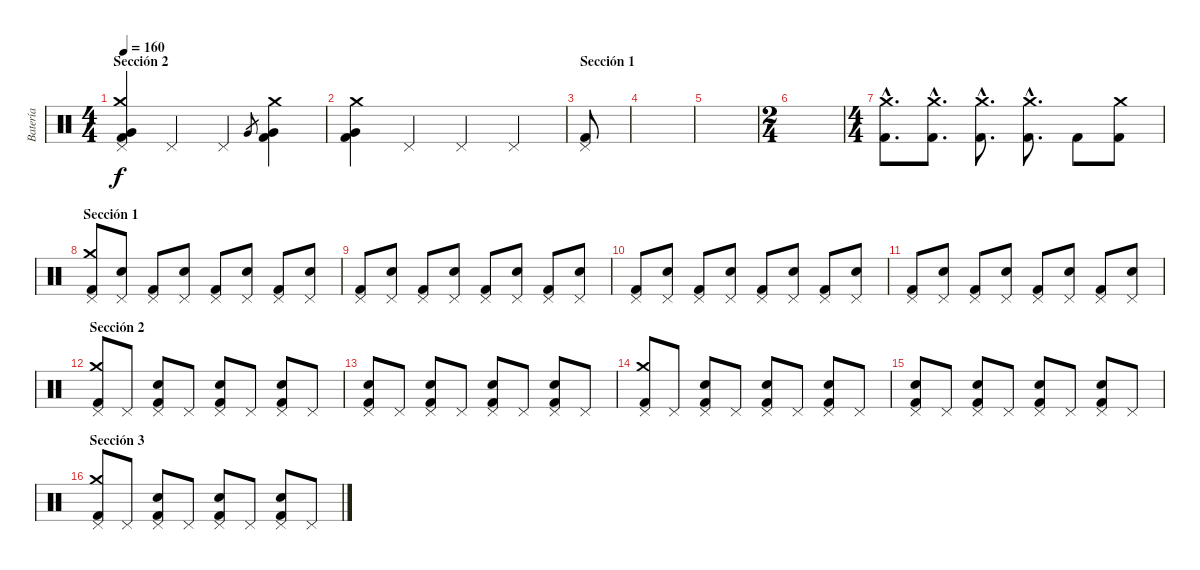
\track ("Batería" "Batería") {instrument percussion}
\staff {score}
\articulation defaults
\ts (4 4)
\section ("" "Sección 2")
\tempo 160
\clef neutral
\ks c
("Pedal Hi-Hat (hit)" "Crash medium (hit)" "Very Low Tom (hit)" "Kick (hit) 2").4{dy f} "Pedal Hi-Hat (hit)".4 "Pedal Hi-Hat (hit)".4 "Very Low Tom (hit)".8{gr} ("Crash medium (hit)" "Very Low Tom (hit)" "Kick (hit) 2").4 |
("Crash medium (hit)" "Very Low Tom (hit)" "Kick (hit) 2").4 "Pedal Hi-Hat (hit)".4 "Pedal Hi-Hat (hit)".4 "Pedal Hi-Hat (hit)".4 |
\section ("" "Sección 1")
("Pedal Hi-Hat (hit)" "Kick (hit) 2").8 |
|
|
\ts (2 4)
|
\ts (4 4)
("Crash medium (hit)"{hac} "Kick (hit) 2"{hac}).8{d} ("Crash medium (hit)"{hac} "Kick (hit) 2"{hac}).8{d} ("Crash medium (hit)"{hac} "Kick (hit) 2"{hac}).8{d} ("Crash medium (hit)"{hac} "Kick (hit) 2"{hac}).8{d} "Kick (hit) 2".8 ("Crash medium (hit)" "Kick (hit) 2").8 |
\section ("" "Sección 1")
("Pedal Hi-Hat (hit)" "Crash medium (hit)" "Kick (hit) 2").8 ("Pedal Hi-Hat (hit)" "Electric Snare (hit)").8 ("Pedal Hi-Hat (hit)" "Kick (hit) 2").8 ("Pedal Hi-Hat (hit)" "Electric Snare (hit)").8 ("Pedal Hi-Hat (hit)" "Kick (hit) 2").8 ("Pedal Hi-Hat (hit)" "Electric Snare (hit)").8 ("Pedal Hi-Hat (hit)" "Kick (hit) 2").8 ("Pedal Hi-Hat (hit)" "Electric Snare (hit)").8 |
("Pedal Hi-Hat (hit)" "Kick (hit) 2").8 ("Pedal Hi-Hat (hit)" "Electric Snare (hit)").8 ("Pedal Hi-Hat (hit)" "Kick (hit) 2").8 ("Pedal Hi-Hat (hit)" "Electric Snare (hit)").8 ("Pedal Hi-Hat (hit)" "Kick (hit) 2").8 ("Pedal Hi-Hat (hit)" "Electric Snare (hit)").8 ("Pedal Hi-Hat (hit)" "Kick (hit) 2").8 ("Pedal Hi-Hat (hit)" "Electric Snare (hit)").8 |
("Pedal Hi-Hat (hit)" "Kick (hit) 2").8 ("Pedal Hi-Hat (hit)" "Electric Snare (hit)").8 ("Pedal Hi-Hat (hit)" "Kick (hit) 2").8 ("Pedal Hi-Hat (hit)" "Electric Snare (hit)").8 ("Pedal Hi-Hat (hit)" "Kick (hit) 2").8 ("Pedal Hi-Hat (hit)" "Electric Snare (hit)").8 ("Pedal Hi-Hat (hit)" "Kick (hit) 2").8 ("Pedal Hi-Hat (hit)" "Electric Snare (hit)").8 |
("Pedal Hi-Hat (hit)" "Kick (hit) 2").8 ("Pedal Hi-Hat (hit)" "Electric Snare (hit)").8 ("Pedal Hi-Hat (hit)" "Kick (hit) 2").8 ("Pedal Hi-Hat (hit)" "Electric Snare (hit)").8 ("Pedal Hi-Hat (hit)" "Kick (hit) 2").8 ("Pedal Hi-Hat (hit)" "Electric Snare (hit)").8 ("Pedal Hi-Hat (hit)" "Kick (hit) 2").8 ("Pedal Hi-Hat (hit)" "Electric Snare (hit)").8 |
\section ("" "Sección 2")
("Pedal Hi-Hat (hit)" "Crash medium (hit)" "Kick (hit) 2").8 "Pedal Hi-Hat (hit)".8 ("Pedal Hi-Hat (hit)" "Electric Snare (hit)" "Kick (hit) 2").8 "Pedal Hi-Hat (hit)".8 ("Pedal Hi-Hat (hit)" "Electric Snare (hit)" "Kick (hit) 2").8 "Pedal Hi-Hat (hit)".8 ("Pedal Hi-Hat (hit)" "Electric Snare (hit)" "Kick (hit) 2").8 "Pedal Hi-Hat (hit)".8 |
("Pedal Hi-Hat (hit)" "Electric Snare (hit)" "Kick (hit) 2").8 "Pedal Hi-Hat (hit)".8 ("Pedal Hi-Hat (hit)" "Electric Snare (hit)" "Kick (hit) 2").8 "Pedal Hi-Hat (hit)".8 ("Pedal Hi-Hat (hit)" "Electric Snare (hit)" "Kick (hit) 2").8 "Pedal Hi-Hat (hit)".8 ("Pedal Hi-Hat (hit)" "Electric Snare (hit)" "Kick (hit) 2").8 "Pedal Hi-Hat (hit)".8 |
("Pedal Hi-Hat (hit)" "Crash medium (hit)" "Kick (hit) 2").8 "Pedal Hi-Hat (hit)".8 ("Pedal Hi-Hat (hit)" "Electric Snare (hit)" "Kick (hit) 2").8 "Pedal Hi-Hat (hit)".8 ("Pedal Hi-Hat (hit)" "Electric Snare (hit)" "Kick (hit) 2").8 "Pedal Hi-Hat (hit)".8 ("Pedal Hi-Hat (hit)" "Electric Snare (hit)" "Kick (hit) 2").8 "Pedal Hi-Hat (hit)".8 |
("Pedal Hi-Hat (hit)" "Electric Snare (hit)" "Kick (hit) 2").8 "Pedal Hi-Hat (hit)".8 ("Pedal Hi-Hat (hit)" "Electric Snare (hit)" "Kick (hit) 2").8 "Pedal Hi-Hat (hit)".8 ("Pedal Hi-Hat (hit)" "Electric Snare (hit)" "Kick (hit) 2").8 "Pedal Hi-Hat (hit)".8 ("Pedal Hi-Hat (hit)" "Electric Snare (hit)" "Kick (hit) 2").8 "Pedal Hi-Hat (hit)".8 |
\section ("" "Sección 3")
("Pedal Hi-Hat (hit)" "Crash medium (hit)" "Kick (hit) 2").8 "Pedal Hi-Hat (hit)".8 ("Pedal Hi-Hat (hit)" "Electric Snare (hit)" "Kick (hit) 2").8 "Pedal Hi-Hat (hit)".8 ("Pedal Hi-Hat (hit)" "Electric Snare (hit)" "Kick (hit) 2").8 "Pedal Hi-Hat (hit)".8 ("Pedal Hi-Hat (hit)" "Electric Snare (hit)" "Kick (hit) 2").8 "Pedal Hi-Hat (hit)".8
